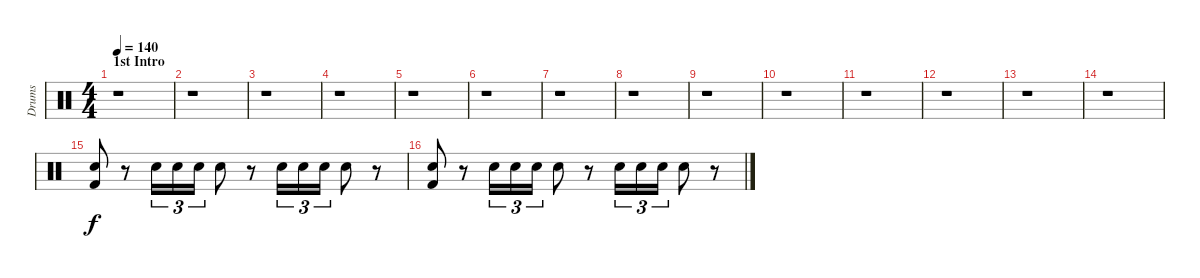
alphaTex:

\track ("Drums" "Drums") {instrument percussion}
\staff {score}
\articulation defaults
\ts (4 4)
\section ("" "1st Intro")
\tempo 140
\tempo 106
\tempo 140
\clef neutral
\ks c
r.1{dy f} |
r.1 |
r.1 |
r.1 |
r.1 |
r.1 |
r.1 |
r.1 |
r.1 |
r.1 |
r.1 |
r.1 |
r.1 |
r.1 |
("Electric Snare (hit)" "Kick (hit) 2").8 r.8 "Electric Snare (hit)".16{tu (3 2)} "Electric Snare (hit)".16{tu (3 2)} "Electric Snare (hit)".16{tu (3 2)} "Electric Snare (hit)".8 r.8 "Electric Snare (hit)".16{tu (3 2)} "Electric Snare (hit)".16{tu (3 2)} "Electric Snare (hit)".16{tu (3 2)} "Electric Snare (hit)".8 r.8 |
("Electric Snare (hit)" "Kick (hit) 2").8 r.8 "Electric Snare (hit)".16{tu (3 2)} "Electric Snare (hit)".16{tu (3 2)} "Electric Snare (hit)".16{tu (3 2)} "Electric Snare (hit)".8 r.8 "Electric Snare (hit)".16{tu (3 2)} "Electric Snare (hit)".16{tu (3 2)} "Electric Snare (hit)".16{tu (3 2)} "Electric Snare (hit)".8 r.8
